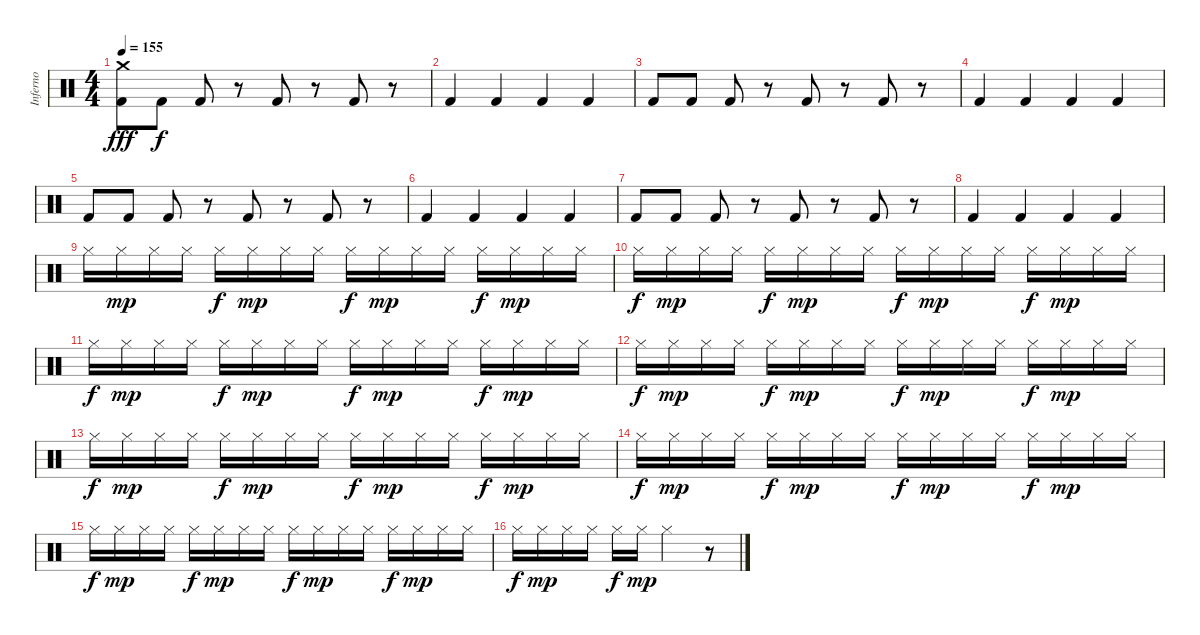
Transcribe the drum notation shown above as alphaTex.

\track ("Inferno" "Inferno") {instrument percussion}
\staff {score}
\articulation defaults
\ts (4 4)
\tempo 155
\clef neutral
\ks c
("Crash medium (hit)" "Kick (hit) 2").8{dy fff} "Kick (hit) 2".8{dy f} "Kick (hit) 2".8 r.8 "Kick (hit) 2".8 r.8 "Kick (hit) 2".8 r.8 |
"Kick (hit) 2".4 "Kick (hit) 2".4 "Kick (hit) 2".4 "Kick (hit) 2".4 |
"Kick (hit) 2".8 "Kick (hit) 2".8 "Kick (hit) 2".8 r.8 "Kick (hit) 2".8 r.8 "Kick (hit) 2".8 r.8 |
"Kick (hit) 2".4 "Kick (hit) 2".4 "Kick (hit) 2".4 "Kick (hit) 2".4 |
"Kick (hit) 2".8 "Kick (hit) 2".8 "Kick (hit) 2".8 r.8 "Kick (hit) 2".8 r.8 "Kick (hit) 2".8 r.8 |
"Kick (hit) 2".4 "Kick (hit) 2".4 "Kick (hit) 2".4 "Kick (hit) 2".4 |
"Kick (hit) 2".8 "Kick (hit) 2".8 "Kick (hit) 2".8 r.8 "Kick (hit) 2".8 r.8 "Kick (hit) 2".8 r.8 |
"Kick (hit) 2".4 "Kick (hit) 2".4 "Kick (hit) 2".4 "Kick (hit) 2".4 |
"Hi-Hat (closed)".16 "Hi-Hat (closed)".16{dy mp} "Hi-Hat (closed)".16 "Hi-Hat (closed)".16 "Hi-Hat (closed)".16{dy f} "Hi-Hat (closed)".16{dy mp} "Hi-Hat (closed)".16 "Hi-Hat (closed)".16 "Hi-Hat (closed)".16{dy f} "Hi-Hat (closed)".16{dy mp} "Hi-Hat (closed)".16 "Hi-Hat (closed)".16 "Hi-Hat (closed)".16{dy f} "Hi-Hat (closed)".16{dy mp} "Hi-Hat (closed)".16 "Hi-Hat (closed)".16 |
"Hi-Hat (closed)".16{dy f} "Hi-Hat (closed)".16{dy mp} "Hi-Hat (closed)".16 "Hi-Hat (closed)".16 "Hi-Hat (closed)".16{dy f} "Hi-Hat (closed)".16{dy mp} "Hi-Hat (closed)".16 "Hi-Hat (closed)".16 "Hi-Hat (closed)".16{dy f} "Hi-Hat (closed)".16{dy mp} "Hi-Hat (closed)".16 "Hi-Hat (closed)".16 "Hi-Hat (closed)".16{dy f} "Hi-Hat (closed)".16{dy mp} "Hi-Hat (closed)".16 "Hi-Hat (closed)".16 |
"Hi-Hat (closed)".16{dy f} "Hi-Hat (closed)".16{dy mp} "Hi-Hat (closed)".16 "Hi-Hat (closed)".16 "Hi-Hat (closed)".16{dy f} "Hi-Hat (closed)".16{dy mp} "Hi-Hat (closed)".16 "Hi-Hat (closed)".16 "Hi-Hat (closed)".16{dy f} "Hi-Hat (closed)".16{dy mp} "Hi-Hat (closed)".16 "Hi-Hat (closed)".16 "Hi-Hat (closed)".16{dy f} "Hi-Hat (closed)".16{dy mp} "Hi-Hat (closed)".16 "Hi-Hat (closed)".16 |
"Hi-Hat (closed)".16{dy f} "Hi-Hat (closed)".16{dy mp} "Hi-Hat (closed)".16 "Hi-Hat (closed)".16 "Hi-Hat (closed)".16{dy f} "Hi-Hat (closed)".16{dy mp} "Hi-Hat (closed)".16 "Hi-Hat (closed)".16 "Hi-Hat (closed)".16{dy f} "Hi-Hat (closed)".16{dy mp} "Hi-Hat (closed)".16 "Hi-Hat (closed)".16 "Hi-Hat (closed)".16{dy f} "Hi-Hat (closed)".16{dy mp} "Hi-Hat (closed)".16 "Hi-Hat (closed)".16 |
"Hi-Hat (closed)".16{dy f} "Hi-Hat (closed)".16{dy mp} "Hi-Hat (closed)".16 "Hi-Hat (closed)".16 "Hi-Hat (closed)".16{dy f} "Hi-Hat (closed)".16{dy mp} "Hi-Hat (closed)".16 "Hi-Hat (closed)".16 "Hi-Hat (closed)".16{dy f} "Hi-Hat (closed)".16{dy mp} "Hi-Hat (closed)".16 "Hi-Hat (closed)".16 "Hi-Hat (closed)".16{dy f} "Hi-Hat (closed)".16{dy mp} "Hi-Hat (closed)".16 "Hi-Hat (closed)".16 |
"Hi-Hat (closed)".16{dy f} "Hi-Hat (closed)".16{dy mp} "Hi-Hat (closed)".16 "Hi-Hat (closed)".16 "Hi-Hat (closed)".16{dy f} "Hi-Hat (closed)".16{dy mp} "Hi-Hat (closed)".16 "Hi-Hat (closed)".16 "Hi-Hat (closed)".16{dy f} "Hi-Hat (closed)".16{dy mp} "Hi-Hat (closed)".16 "Hi-Hat (closed)".16 "Hi-Hat (closed)".16{dy f} "Hi-Hat (closed)".16{dy mp} "Hi-Hat (closed)".16 "Hi-Hat (closed)".16 |
"Hi-Hat (closed)".16{dy f} "Hi-Hat (closed)".16{dy mp} "Hi-Hat (closed)".16 "Hi-Hat (closed)".16 "Hi-Hat (closed)".16{dy f} "Hi-Hat (closed)".16{dy mp} "Hi-Hat (closed)".16 "Hi-Hat (closed)".16 "Hi-Hat (closed)".16{dy f} "Hi-Hat (closed)".16{dy mp} "Hi-Hat (closed)".16 "Hi-Hat (closed)".16 "Hi-Hat (closed)".16{dy f} "Hi-Hat (closed)".16{dy mp} "Hi-Hat (closed)".16 "Hi-Hat (closed)".16 |
"Hi-Hat (closed)".16{dy f} "Hi-Hat (closed)".16{dy mp} "Hi-Hat (closed)".16 "Hi-Hat (closed)".16 "Hi-Hat (closed)".16{dy f} "Hi-Hat (closed)".16{dy mp} "Hi-Hat (closed)".2 r.8
